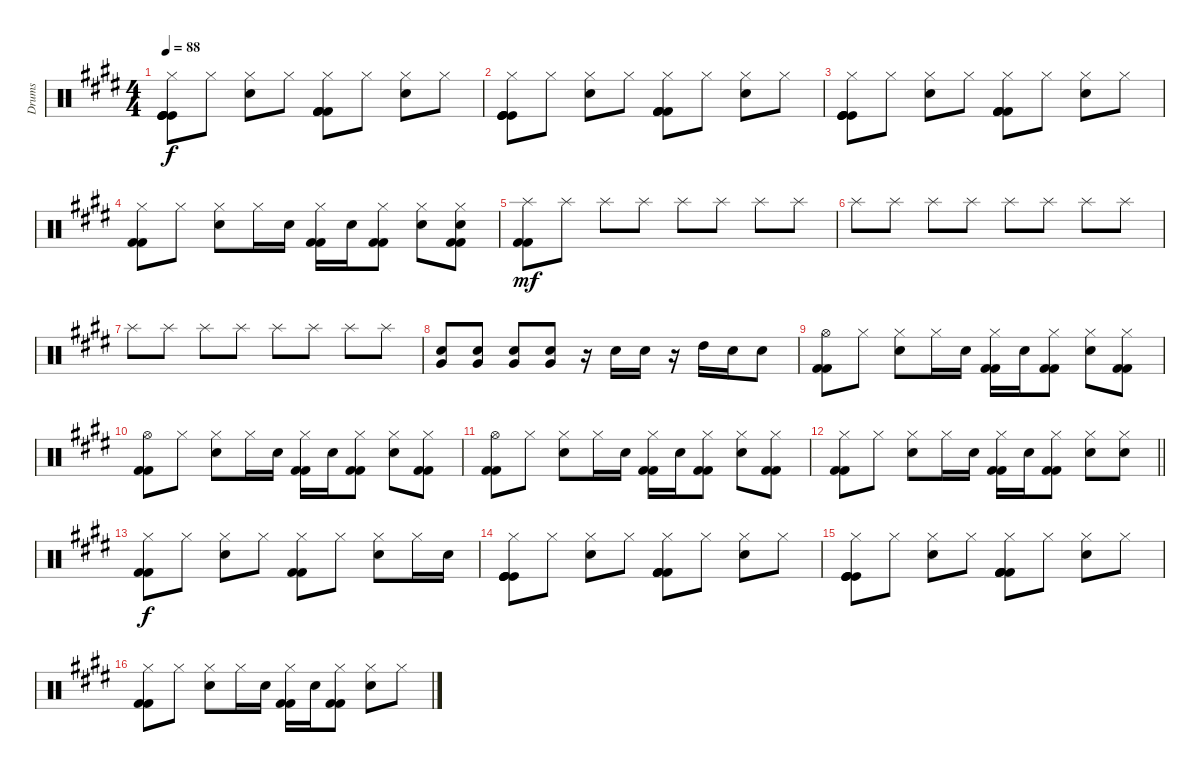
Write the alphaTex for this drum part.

\track ("Drums" "Drums") {instrument percussion}
\staff {score}
\articulation defaults
\ts (4 4)
\tempo 88
\clef neutral
\ks e
("Hi-Hat (closed)" "Kick (hit)" "Kick (hit)" "Kick (hit)" "Kick (hit)").8{dy f} "Hi-Hat (closed)".8 ("Hi-Hat (closed)" "Snare (hit) 2").8 "Hi-Hat (closed)".8 ("Hi-Hat (closed)" "Kick (hit) 2" "Kick (hit) 2" "Kick (hit) 2" "Kick (hit) 2").8 "Hi-Hat (closed)".8 ("Hi-Hat (closed)" "Snare (hit) 2").8 "Hi-Hat (closed)".8 |
("Hi-Hat (closed)" "Kick (hit)" "Kick (hit)" "Kick (hit)" "Kick (hit)").8 "Hi-Hat (closed)".8 ("Hi-Hat (closed)" "Snare (hit) 2").8 "Hi-Hat (closed)".8 ("Hi-Hat (closed)" "Kick (hit) 2" "Kick (hit) 2" "Kick (hit) 2" "Kick (hit) 2").8 "Hi-Hat (closed)".8 ("Hi-Hat (closed)" "Snare (hit) 2").8 "Hi-Hat (closed)".8 |
("Hi-Hat (closed)" "Kick (hit)" "Kick (hit)" "Kick (hit)" "Kick (hit)").8 "Hi-Hat (closed)".8 ("Hi-Hat (closed)" "Snare (hit) 2").8 "Hi-Hat (closed)".8 ("Hi-Hat (closed)" "Kick (hit) 2" "Kick (hit) 2" "Kick (hit) 2" "Kick (hit) 2").8 "Hi-Hat (closed)".8 ("Hi-Hat (closed)" "Snare (hit) 2").8 "Hi-Hat (closed)".8 |
("Hi-Hat (closed)" "Kick (hit) 2" "Kick (hit) 2").8 "Hi-Hat (closed)".8 ("Hi-Hat (closed)" "Snare (hit) 2").8 "Hi-Hat (closed)".16 "Snare (hit) 2".16 ("Hi-Hat (closed)" "Kick (hit) 2" "Kick (hit) 2").16 "Snare (hit) 2".16 ("Hi-Hat (closed)" "Kick (hit) 2" "Kick (hit) 2").8 ("Hi-Hat (closed)" "Snare (hit) 2").8 ("Hi-Hat (closed)" "Snare (hit) 2" "Kick (hit) 2" "Kick (hit) 2").8 |
("Splash (hit)" "Kick (hit) 2" "Kick (hit) 2").8{dy mf} "Splash (hit)".8 "Splash (hit)".8 "Splash (hit)".8 "Splash (hit)".8 "Splash (hit)".8 "Splash (hit)".8 "Splash (hit)".8 |
"Splash (hit)".8 "Splash (hit)".8 "Splash (hit)".8 "Splash (hit)".8 "Splash (hit)".8 "Splash (hit)".8 "Splash (hit)".8 "Splash (hit)".8 |
"Splash (hit)".8 "Splash (hit)".8 "Splash (hit)".8 "Splash (hit)".8 "Splash (hit)".8 "Splash (hit)".8 "Splash (hit)".8 "Splash (hit)".8 |
("Snare (hit) 2" "Very Low Tom (hit)").8 ("Snare (hit) 2" "Very Low Tom (hit)").8 ("Snare (hit) 2" "Very Low Tom (hit)").8 ("Snare (hit) 2" "Very Low Tom (hit)").8 r.16 "Snare (hit) 2".16 "Snare (hit) 2".16 r.16 "High Tom (hit)".16 "Snare (hit) 2".16 "Snare (hit) 2".8 |
("Hi-Hat (open)" "Kick (hit) 2" "Kick (hit) 2").8 "Hi-Hat (closed)".8 ("Hi-Hat (closed)" "Snare (hit) 2").8 "Hi-Hat (closed)".16 "Snare (hit) 2".16 ("Hi-Hat (closed)" "Kick (hit) 2" "Kick (hit) 2").16 "Snare (hit) 2".16 ("Hi-Hat (closed)" "Kick (hit) 2" "Kick (hit) 2").8 ("Hi-Hat (closed)" "Snare (hit) 2").8 ("Hi-Hat (closed)" "Kick (hit) 2" "Kick (hit) 2").8 |
("Hi-Hat (open)" "Kick (hit) 2" "Kick (hit) 2").8 "Hi-Hat (closed)".8 ("Hi-Hat (closed)" "Snare (hit) 2").8 "Hi-Hat (closed)".16 "Snare (hit) 2".16 ("Hi-Hat (closed)" "Kick (hit) 2" "Kick (hit) 2").16 "Snare (hit) 2".16 ("Hi-Hat (closed)" "Kick (hit) 2" "Kick (hit) 2").8 ("Hi-Hat (closed)" "Snare (hit) 2").8 ("Hi-Hat (closed)" "Kick (hit) 2" "Kick (hit) 2").8 |
("Hi-Hat (open)" "Kick (hit) 2" "Kick (hit) 2").8 "Hi-Hat (closed)".8 ("Hi-Hat (closed)" "Snare (hit) 2").8 "Hi-Hat (closed)".16 "Snare (hit) 2".16 ("Hi-Hat (closed)" "Kick (hit) 2" "Kick (hit) 2").16 "Snare (hit) 2".16 ("Hi-Hat (closed)" "Kick (hit) 2" "Kick (hit) 2").8 ("Hi-Hat (closed)" "Snare (hit) 2").8 ("Hi-Hat (closed)" "Kick (hit) 2" "Kick (hit) 2").8 |
\barLineRight lightlight
("Hi-Hat (closed)" "Kick (hit) 2" "Kick (hit) 2").8 "Hi-Hat (closed)".8 ("Hi-Hat (closed)" "Snare (hit) 2").8 "Hi-Hat (closed)".16 "Snare (hit) 2".16 ("Hi-Hat (closed)" "Kick (hit) 2" "Kick (hit) 2").16 "Snare (hit) 2".16 ("Hi-Hat (closed)" "Kick (hit) 2" "Kick (hit) 2").8 ("Hi-Hat (closed)" "Snare (hit) 2").8 ("Hi-Hat (closed)" "Snare (hit) 2").8 |
("Hi-Hat (closed)" "Kick (hit) 2" "Kick (hit) 2").8{dy f} "Hi-Hat (closed)".8 ("Hi-Hat (closed)" "Snare (hit) 2").8 "Hi-Hat (closed)".8 ("Hi-Hat (closed)" "Kick (hit) 2" "Kick (hit) 2").8 "Hi-Hat (closed)".8 ("Hi-Hat (closed)" "Snare (hit) 2").8 "Hi-Hat (closed)".16 "Snare (hit) 2".16 |
("Hi-Hat (closed)" "Kick (hit)" "Kick (hit)" "Kick (hit)" "Kick (hit)").8 "Hi-Hat (closed)".8 ("Hi-Hat (closed)" "Snare (hit) 2").8 "Hi-Hat (closed)".8 ("Hi-Hat (closed)" "Kick (hit) 2" "Kick (hit) 2" "Kick (hit) 2" "Kick (hit) 2").8 "Hi-Hat (closed)".8 ("Hi-Hat (closed)" "Snare (hit) 2").8 "Hi-Hat (closed)".8 |
("Hi-Hat (closed)" "Kick (hit)" "Kick (hit)" "Kick (hit)" "Kick (hit)").8 "Hi-Hat (closed)".8 ("Hi-Hat (closed)" "Snare (hit) 2").8 "Hi-Hat (closed)".8 ("Hi-Hat (closed)" "Kick (hit) 2" "Kick (hit) 2" "Kick (hit) 2" "Kick (hit) 2").8 "Hi-Hat (closed)".8 ("Hi-Hat (closed)" "Snare (hit) 2").8 "Hi-Hat (closed)".8 |
("Hi-Hat (closed)" "Kick (hit) 2" "Kick (hit) 2").8 "Hi-Hat (closed)".8 ("Hi-Hat (closed)" "Snare (hit) 2").8 "Hi-Hat (closed)".16 "Snare (hit) 2".16 ("Hi-Hat (closed)" "Kick (hit) 2" "Kick (hit) 2").16 "Snare (hit) 2".16 ("Hi-Hat (closed)" "Kick (hit) 2" "Kick (hit) 2").8 ("Hi-Hat (closed)" "Snare (hit) 2").8 "Hi-Hat (closed)".8
